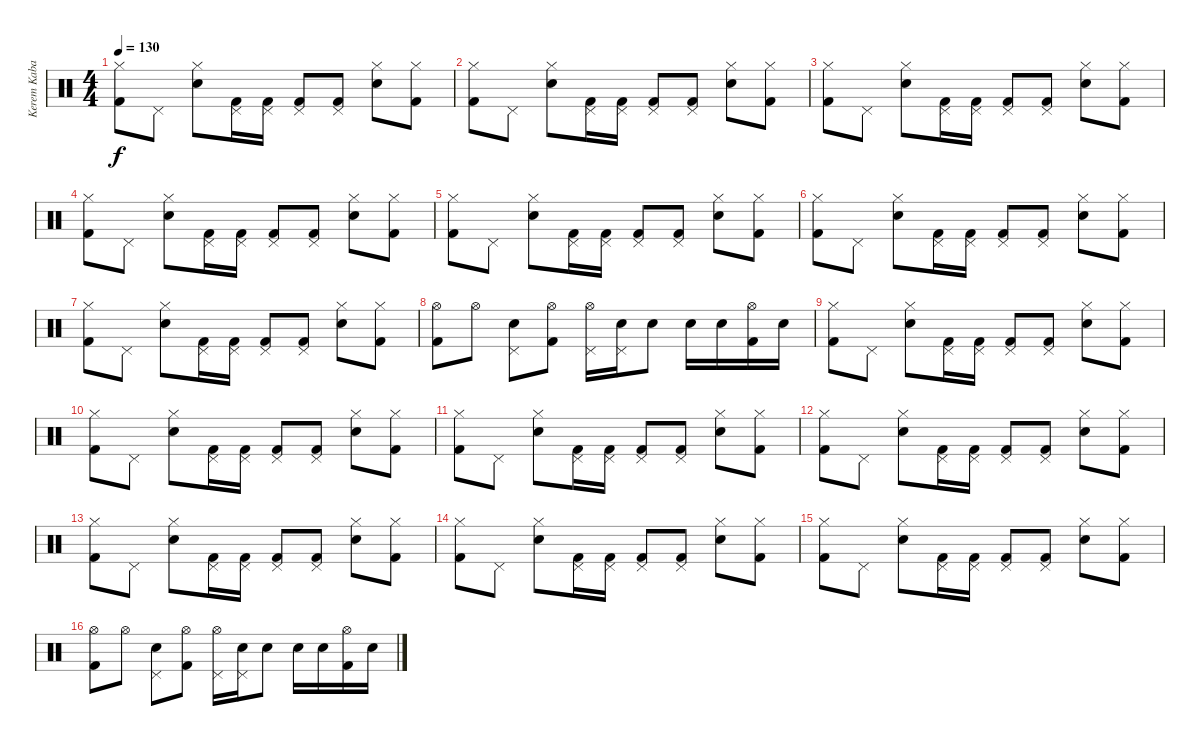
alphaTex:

\track ("Kerem Kabadayi" "Kerem Kaba") {instrument percussion}
\staff {score}
\articulation defaults
\ts (4 4)
\tempo 130
\clef neutral
\ks c
("Kick (hit) 2" "Hi-Hat (closed)").8{dy f} "Pedal Hi-Hat (hit)".8 ("Electric Snare (hit)" "Hi-Hat (closed)").8 ("Kick (hit) 2" "Pedal Hi-Hat (hit)").16 ("Kick (hit) 2" "Pedal Hi-Hat (hit)").16 ("Kick (hit) 2" "Pedal Hi-Hat (hit)").8 ("Kick (hit) 2" "Pedal Hi-Hat (hit)").8 ("Electric Snare (hit)" "Hi-Hat (closed)").8 ("Kick (hit) 2" "Hi-Hat (closed)").8 |
("Kick (hit) 2" "Hi-Hat (closed)").8 "Pedal Hi-Hat (hit)".8 ("Electric Snare (hit)" "Hi-Hat (closed)").8 ("Kick (hit) 2" "Pedal Hi-Hat (hit)").16 ("Kick (hit) 2" "Pedal Hi-Hat (hit)").16 ("Kick (hit) 2" "Pedal Hi-Hat (hit)").8 ("Kick (hit) 2" "Pedal Hi-Hat (hit)").8 ("Electric Snare (hit)" "Hi-Hat (closed)").8 ("Kick (hit) 2" "Hi-Hat (closed)").8 |
("Kick (hit) 2" "Hi-Hat (closed)").8 "Pedal Hi-Hat (hit)".8 ("Electric Snare (hit)" "Hi-Hat (closed)").8 ("Kick (hit) 2" "Pedal Hi-Hat (hit)").16 ("Kick (hit) 2" "Pedal Hi-Hat (hit)").16 ("Kick (hit) 2" "Pedal Hi-Hat (hit)").8 ("Kick (hit) 2" "Pedal Hi-Hat (hit)").8 ("Electric Snare (hit)" "Hi-Hat (closed)").8 ("Kick (hit) 2" "Hi-Hat (closed)").8 |
("Kick (hit) 2" "Hi-Hat (closed)").8 "Pedal Hi-Hat (hit)".8 ("Electric Snare (hit)" "Hi-Hat (closed)").8 ("Kick (hit) 2" "Pedal Hi-Hat (hit)").16 ("Kick (hit) 2" "Pedal Hi-Hat (hit)").16 ("Kick (hit) 2" "Pedal Hi-Hat (hit)").8 ("Kick (hit) 2" "Pedal Hi-Hat (hit)").8 ("Electric Snare (hit)" "Hi-Hat (closed)").8 ("Kick (hit) 2" "Hi-Hat (closed)").8 |
("Kick (hit) 2" "Hi-Hat (closed)").8 "Pedal Hi-Hat (hit)".8 ("Electric Snare (hit)" "Hi-Hat (closed)").8 ("Kick (hit) 2" "Pedal Hi-Hat (hit)").16 ("Kick (hit) 2" "Pedal Hi-Hat (hit)").16 ("Kick (hit) 2" "Pedal Hi-Hat (hit)").8 ("Kick (hit) 2" "Pedal Hi-Hat (hit)").8 ("Electric Snare (hit)" "Hi-Hat (closed)").8 ("Kick (hit) 2" "Hi-Hat (closed)").8 |
("Kick (hit) 2" "Hi-Hat (closed)").8 "Pedal Hi-Hat (hit)".8 ("Electric Snare (hit)" "Hi-Hat (closed)").8 ("Kick (hit) 2" "Pedal Hi-Hat (hit)").16 ("Kick (hit) 2" "Pedal Hi-Hat (hit)").16 ("Kick (hit) 2" "Pedal Hi-Hat (hit)").8 ("Kick (hit) 2" "Pedal Hi-Hat (hit)").8 ("Electric Snare (hit)" "Hi-Hat (closed)").8 ("Kick (hit) 2" "Hi-Hat (closed)").8 |
("Kick (hit) 2" "Hi-Hat (closed)").8 "Pedal Hi-Hat (hit)".8 ("Electric Snare (hit)" "Hi-Hat (closed)").8 ("Kick (hit) 2" "Pedal Hi-Hat (hit)").16 ("Kick (hit) 2" "Pedal Hi-Hat (hit)").16 ("Kick (hit) 2" "Pedal Hi-Hat (hit)").8 ("Kick (hit) 2" "Pedal Hi-Hat (hit)").8 ("Electric Snare (hit)" "Hi-Hat (closed)").8 ("Kick (hit) 2" "Hi-Hat (closed)").8 |
("Kick (hit) 2" "Hi-Hat (open)").8 "Hi-Hat (open)".8 ("Electric Snare (hit)" "Pedal Hi-Hat (hit)").8 ("Kick (hit) 2" "Hi-Hat (open)").8 ("Hi-Hat (open)" "Pedal Hi-Hat (hit)").16 ("Electric Snare (hit)" "Pedal Hi-Hat (hit)").16 "Electric Snare (hit)".8 "Electric Snare (hit)".16 "Electric Snare (hit)".16 ("Kick (hit) 2" "Hi-Hat (open)").16 "Electric Snare (hit)".16 |
("Kick (hit) 2" "Hi-Hat (closed)").8 "Pedal Hi-Hat (hit)".8 ("Electric Snare (hit)" "Hi-Hat (closed)").8 ("Kick (hit) 2" "Pedal Hi-Hat (hit)").16 ("Kick (hit) 2" "Pedal Hi-Hat (hit)").16 ("Kick (hit) 2" "Pedal Hi-Hat (hit)").8 ("Kick (hit) 2" "Pedal Hi-Hat (hit)").8 ("Electric Snare (hit)" "Hi-Hat (closed)").8 ("Kick (hit) 2" "Hi-Hat (closed)").8 |
("Kick (hit) 2" "Hi-Hat (closed)").8 "Pedal Hi-Hat (hit)".8 ("Electric Snare (hit)" "Hi-Hat (closed)").8 ("Kick (hit) 2" "Pedal Hi-Hat (hit)").16 ("Kick (hit) 2" "Pedal Hi-Hat (hit)").16 ("Kick (hit) 2" "Pedal Hi-Hat (hit)").8 ("Kick (hit) 2" "Pedal Hi-Hat (hit)").8 ("Electric Snare (hit)" "Hi-Hat (closed)").8 ("Kick (hit) 2" "Hi-Hat (closed)").8 |
("Kick (hit) 2" "Hi-Hat (closed)").8 "Pedal Hi-Hat (hit)".8 ("Electric Snare (hit)" "Hi-Hat (closed)").8 ("Kick (hit) 2" "Pedal Hi-Hat (hit)").16 ("Kick (hit) 2" "Pedal Hi-Hat (hit)").16 ("Kick (hit) 2" "Pedal Hi-Hat (hit)").8 ("Kick (hit) 2" "Pedal Hi-Hat (hit)").8 ("Electric Snare (hit)" "Hi-Hat (closed)").8 ("Kick (hit) 2" "Hi-Hat (closed)").8 |
("Kick (hit) 2" "Hi-Hat (closed)").8 "Pedal Hi-Hat (hit)".8 ("Electric Snare (hit)" "Hi-Hat (closed)").8 ("Kick (hit) 2" "Pedal Hi-Hat (hit)").16 ("Kick (hit) 2" "Pedal Hi-Hat (hit)").16 ("Kick (hit) 2" "Pedal Hi-Hat (hit)").8 ("Kick (hit) 2" "Pedal Hi-Hat (hit)").8 ("Electric Snare (hit)" "Hi-Hat (closed)").8 ("Kick (hit) 2" "Hi-Hat (closed)").8 |
("Kick (hit) 2" "Hi-Hat (closed)").8 "Pedal Hi-Hat (hit)".8 ("Electric Snare (hit)" "Hi-Hat (closed)").8 ("Kick (hit) 2" "Pedal Hi-Hat (hit)").16 ("Kick (hit) 2" "Pedal Hi-Hat (hit)").16 ("Kick (hit) 2" "Pedal Hi-Hat (hit)").8 ("Kick (hit) 2" "Pedal Hi-Hat (hit)").8 ("Electric Snare (hit)" "Hi-Hat (closed)").8 ("Kick (hit) 2" "Hi-Hat (closed)").8 |
("Kick (hit) 2" "Hi-Hat (closed)").8 "Pedal Hi-Hat (hit)".8 ("Electric Snare (hit)" "Hi-Hat (closed)").8 ("Kick (hit) 2" "Pedal Hi-Hat (hit)").16 ("Kick (hit) 2" "Pedal Hi-Hat (hit)").16 ("Kick (hit) 2" "Pedal Hi-Hat (hit)").8 ("Kick (hit) 2" "Pedal Hi-Hat (hit)").8 ("Electric Snare (hit)" "Hi-Hat (closed)").8 ("Kick (hit) 2" "Hi-Hat (closed)").8 |
("Kick (hit) 2" "Hi-Hat (closed)").8 "Pedal Hi-Hat (hit)".8 ("Electric Snare (hit)" "Hi-Hat (closed)").8 ("Kick (hit) 2" "Pedal Hi-Hat (hit)").16 ("Kick (hit) 2" "Pedal Hi-Hat (hit)").16 ("Kick (hit) 2" "Pedal Hi-Hat (hit)").8 ("Kick (hit) 2" "Pedal Hi-Hat (hit)").8 ("Electric Snare (hit)" "Hi-Hat (closed)").8 ("Kick (hit) 2" "Hi-Hat (closed)").8 |
("Kick (hit) 2" "Hi-Hat (open)").8 "Hi-Hat (open)".8 ("Electric Snare (hit)" "Pedal Hi-Hat (hit)").8 ("Kick (hit) 2" "Hi-Hat (open)").8 ("Hi-Hat (open)" "Pedal Hi-Hat (hit)").16 ("Electric Snare (hit)" "Pedal Hi-Hat (hit)").16 "Electric Snare (hit)".8 "Electric Snare (hit)".16 "Electric Snare (hit)".16 ("Kick (hit) 2" "Hi-Hat (open)").16 "Electric Snare (hit)".16
